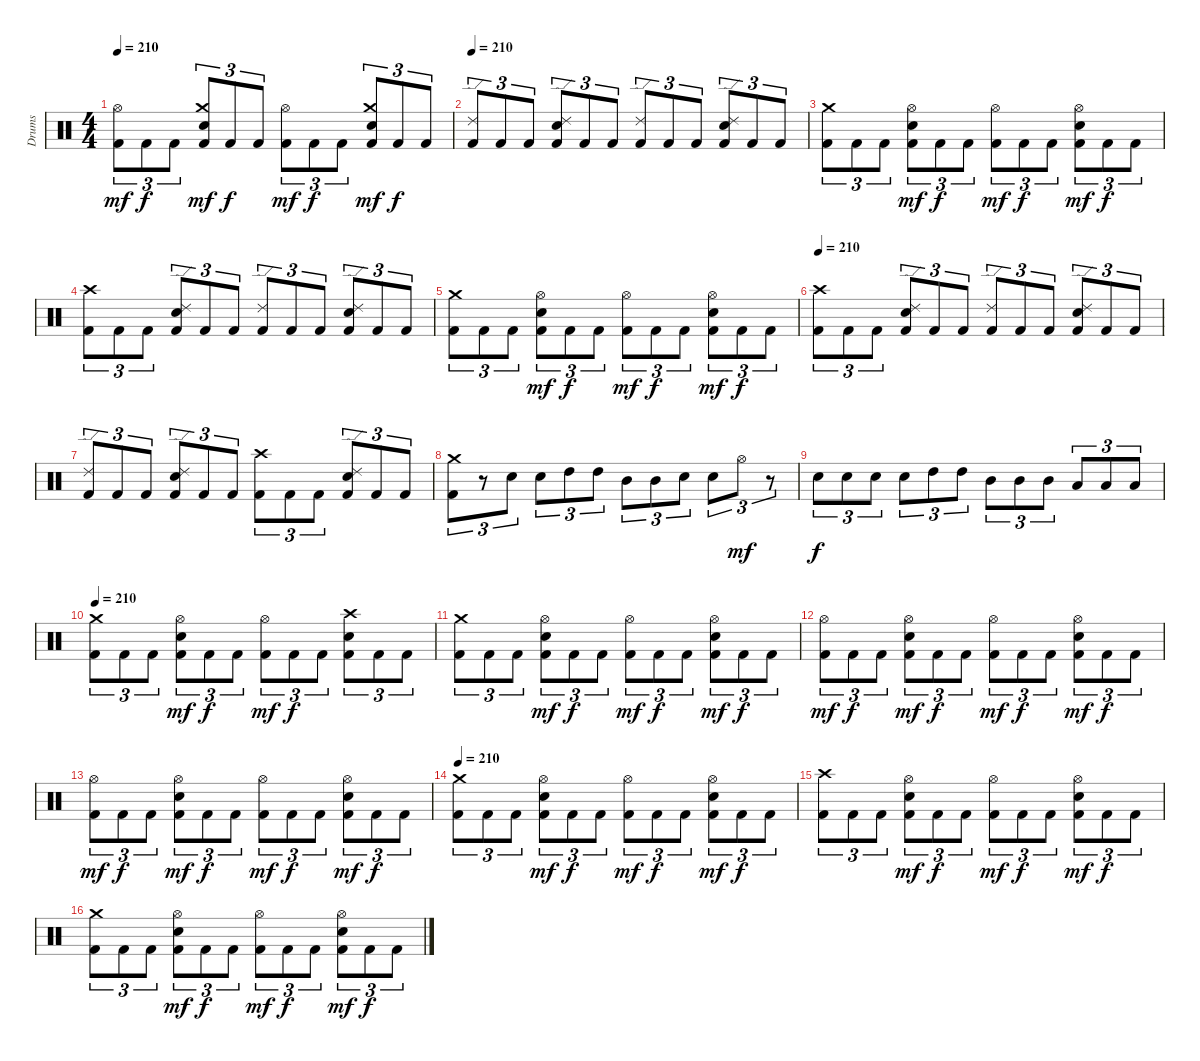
\track ("Drums" "Drums") {instrument percussion}
\staff {score}
\articulation defaults
\ts (4 4)
\tempo 210
\clef neutral
\ks c
("Hi-Hat (open)" "Kick (hit) 2").8{tu (3 2) dy mf} "Kick (hit) 2".8{tu (3 2) dy f} "Kick (hit) 2".8{tu (3 2)} ("Crash medium (hit)" "Electric Snare (hit)" "Kick (hit) 2").8{tu (3 2) dy mf} "Kick (hit) 2".8{tu (3 2) dy f} "Kick (hit) 2".8{tu (3 2)} ("Hi-Hat (open)" "Kick (hit) 2").8{tu (3 2) dy mf} "Kick (hit) 2".8{tu (3 2) dy f} "Kick (hit) 2".8{tu (3 2)} ("Crash medium (hit)" "Electric Snare (hit)" "Kick (hit) 2").8{tu (3 2) dy mf} "Kick (hit) 2".8{tu (3 2) dy f} "Kick (hit) 2".8{tu (3 2)} |
\tempo 210
("Ride (edge) 2" "Kick (hit) 2").8{tu (3 2)} "Kick (hit) 2".8{tu (3 2)} "Kick (hit) 2".8{tu (3 2)} ("Ride (edge) 2" "Electric Snare (hit)" "Kick (hit) 2").8{tu (3 2)} "Kick (hit) 2".8{tu (3 2)} "Kick (hit) 2".8{tu (3 2)} ("Ride (edge) 2" "Kick (hit) 2").8{tu (3 2)} "Kick (hit) 2".8{tu (3 2)} "Kick (hit) 2".8{tu (3 2)} ("Ride (edge) 2" "Electric Snare (hit)" "Kick (hit) 2").8{tu (3 2)} "Kick (hit) 2".8{tu (3 2)} "Kick (hit) 2".8{tu (3 2)} |
("Crash medium (hit)" "Kick (hit) 2").8{tu (3 2)} "Kick (hit) 2".8{tu (3 2)} "Kick (hit) 2".8{tu (3 2)} ("Hi-Hat (open)" "Electric Snare (hit)" "Kick (hit) 2").8{tu (3 2) dy mf} "Kick (hit) 2".8{tu (3 2) dy f} "Kick (hit) 2".8{tu (3 2)} ("Hi-Hat (open)" "Kick (hit) 2").8{tu (3 2) dy mf} "Kick (hit) 2".8{tu (3 2) dy f} "Kick (hit) 2".8{tu (3 2)} ("Hi-Hat (open)" "Electric Snare (hit)" "Kick (hit) 2").8{tu (3 2) dy mf} "Kick (hit) 2".8{tu (3 2) dy f} "Kick (hit) 2".8{tu (3 2)} |
("Crash high (hit)" "Kick (hit) 2").8{tu (3 2)} "Kick (hit) 2".8{tu (3 2)} "Kick (hit) 2".8{tu (3 2)} ("Ride (edge) 2" "Electric Snare (hit)" "Kick (hit) 2").8{tu (3 2)} "Kick (hit) 2".8{tu (3 2)} "Kick (hit) 2".8{tu (3 2)} ("Ride (edge) 2" "Kick (hit) 2").8{tu (3 2)} "Kick (hit) 2".8{tu (3 2)} "Kick (hit) 2".8{tu (3 2)} ("Ride (edge) 2" "Electric Snare (hit)" "Kick (hit) 2").8{tu (3 2)} "Kick (hit) 2".8{tu (3 2)} "Kick (hit) 2".8{tu (3 2)} |
("Crash medium (hit)" "Kick (hit) 2").8{tu (3 2)} "Kick (hit) 2".8{tu (3 2)} "Kick (hit) 2".8{tu (3 2)} ("Hi-Hat (open)" "Electric Snare (hit)" "Kick (hit) 2").8{tu (3 2) dy mf} "Kick (hit) 2".8{tu (3 2) dy f} "Kick (hit) 2".8{tu (3 2)} ("Hi-Hat (open)" "Kick (hit) 2").8{tu (3 2) dy mf} "Kick (hit) 2".8{tu (3 2) dy f} "Kick (hit) 2".8{tu (3 2)} ("Hi-Hat (open)" "Electric Snare (hit)" "Kick (hit) 2").8{tu (3 2) dy mf} "Kick (hit) 2".8{tu (3 2) dy f} "Kick (hit) 2".8{tu (3 2)} |
\tempo 210
("Crash high (hit)" "Kick (hit) 2").8{tu (3 2)} "Kick (hit) 2".8{tu (3 2)} "Kick (hit) 2".8{tu (3 2)} ("Ride (edge) 2" "Electric Snare (hit)" "Kick (hit) 2").8{tu (3 2)} "Kick (hit) 2".8{tu (3 2)} "Kick (hit) 2".8{tu (3 2)} ("Ride (edge) 2" "Kick (hit) 2").8{tu (3 2)} "Kick (hit) 2".8{tu (3 2)} "Kick (hit) 2".8{tu (3 2)} ("Ride (edge) 2" "Electric Snare (hit)" "Kick (hit) 2").8{tu (3 2)} "Kick (hit) 2".8{tu (3 2)} "Kick (hit) 2".8{tu (3 2)} |
("Ride (edge) 2" "Kick (hit) 2").8{tu (3 2)} "Kick (hit) 2".8{tu (3 2)} "Kick (hit) 2".8{tu (3 2)} ("Ride (edge) 2" "Electric Snare (hit)" "Kick (hit) 2").8{tu (3 2)} "Kick (hit) 2".8{tu (3 2)} "Kick (hit) 2".8{tu (3 2)} ("Crash high (hit)" "Kick (hit) 2").8{tu (3 2)} "Kick (hit) 2".8{tu (3 2)} "Kick (hit) 2".8{tu (3 2)} ("Ride (edge) 2" "Electric Snare (hit)" "Kick (hit) 2").8{tu (3 2)} "Kick (hit) 2".8{tu (3 2)} "Kick (hit) 2".8{tu (3 2)} |
("Crash medium (hit)" "Kick (hit) 2").8{tu (3 2)} r.8{tu (3 2)} "Electric Snare (hit)".8{tu (3 2)} "Electric Snare (hit)".8{tu (3 2)} "High Tom (hit)".8{tu (3 2)} "High Tom (hit)".8{tu (3 2)} "Mid Tom (hit)".8{tu (3 2)} "Mid Tom (hit)".8{tu (3 2)} "Electric Snare (hit)".8{tu (3 2)} "Electric Snare (hit)".8{tu (3 2)} "Hi-Hat (open)".8{tu (3 2) dy mf} r.8{tu (3 2)} |
"Electric Snare (hit)".8{tu (3 2) dy f} "Electric Snare (hit)".8{tu (3 2)} "Electric Snare (hit)".8{tu (3 2)} "Electric Snare (hit)".8{tu (3 2)} "High Tom (hit)".8{tu (3 2)} "High Tom (hit)".8{tu (3 2)} "Mid Tom (hit)".8{tu (3 2)} "Mid Tom (hit)".8{tu (3 2)} "Mid Tom (hit)".8{tu (3 2)} "Low Tom (hit)".8{tu (3 2)} "Low Tom (hit)".8{tu (3 2)} "Low Tom (hit)".8{tu (3 2)} |
\tempo 210
("Crash medium (hit)" "Kick (hit) 2").8{tu (3 2)} "Kick (hit) 2".8{tu (3 2)} "Kick (hit) 2".8{tu (3 2)} ("Hi-Hat (open)" "Electric Snare (hit)" "Kick (hit) 2").8{tu (3 2) dy mf} "Kick (hit) 2".8{tu (3 2) dy f} "Kick (hit) 2".8{tu (3 2)} ("Hi-Hat (open)" "Kick (hit) 2").8{tu (3 2) dy mf} "Kick (hit) 2".8{tu (3 2) dy f} "Kick (hit) 2".8{tu (3 2)} ("Crash high (hit)" "Electric Snare (hit)" "Kick (hit) 2").8{tu (3 2)} "Kick (hit) 2".8{tu (3 2)} "Kick (hit) 2".8{tu (3 2)} |
("Crash medium (hit)" "Kick (hit) 2").8{tu (3 2)} "Kick (hit) 2".8{tu (3 2)} "Kick (hit) 2".8{tu (3 2)} ("Hi-Hat (open)" "Electric Snare (hit)" "Kick (hit) 2").8{tu (3 2) dy mf} "Kick (hit) 2".8{tu (3 2) dy f} "Kick (hit) 2".8{tu (3 2)} ("Hi-Hat (open)" "Kick (hit) 2").8{tu (3 2) dy mf} "Kick (hit) 2".8{tu (3 2) dy f} "Kick (hit) 2".8{tu (3 2)} ("Hi-Hat (open)" "Electric Snare (hit)" "Kick (hit) 2").8{tu (3 2) dy mf} "Kick (hit) 2".8{tu (3 2) dy f} "Kick (hit) 2".8{tu (3 2)} |
("Hi-Hat (open)" "Kick (hit) 2").8{tu (3 2) dy mf} "Kick (hit) 2".8{tu (3 2) dy f} "Kick (hit) 2".8{tu (3 2)} ("Hi-Hat (open)" "Electric Snare (hit)" "Kick (hit) 2").8{tu (3 2) dy mf} "Kick (hit) 2".8{tu (3 2) dy f} "Kick (hit) 2".8{tu (3 2)} ("Hi-Hat (open)" "Kick (hit) 2").8{tu (3 2) dy mf} "Kick (hit) 2".8{tu (3 2) dy f} "Kick (hit) 2".8{tu (3 2)} ("Hi-Hat (open)" "Electric Snare (hit)" "Kick (hit) 2").8{tu (3 2) dy mf} "Kick (hit) 2".8{tu (3 2) dy f} "Kick (hit) 2".8{tu (3 2)} |
("Hi-Hat (open)" "Kick (hit) 2").8{tu (3 2) dy mf} "Kick (hit) 2".8{tu (3 2) dy f} "Kick (hit) 2".8{tu (3 2)} ("Hi-Hat (open)" "Electric Snare (hit)" "Kick (hit) 2").8{tu (3 2) dy mf} "Kick (hit) 2".8{tu (3 2) dy f} "Kick (hit) 2".8{tu (3 2)} ("Hi-Hat (open)" "Kick (hit) 2").8{tu (3 2) dy mf} "Kick (hit) 2".8{tu (3 2) dy f} "Kick (hit) 2".8{tu (3 2)} ("Hi-Hat (open)" "Electric Snare (hit)" "Kick (hit) 2").8{tu (3 2) dy mf} "Kick (hit) 2".8{tu (3 2) dy f} "Kick (hit) 2".8{tu (3 2)} |
\tempo 210
("Crash medium (hit)" "Kick (hit) 2").8{tu (3 2)} "Kick (hit) 2".8{tu (3 2)} "Kick (hit) 2".8{tu (3 2)} ("Hi-Hat (open)" "Electric Snare (hit)" "Kick (hit) 2").8{tu (3 2) dy mf} "Kick (hit) 2".8{tu (3 2) dy f} "Kick (hit) 2".8{tu (3 2)} ("Hi-Hat (open)" "Kick (hit) 2").8{tu (3 2) dy mf} "Kick (hit) 2".8{tu (3 2) dy f} "Kick (hit) 2".8{tu (3 2)} ("Hi-Hat (open)" "Electric Snare (hit)" "Kick (hit) 2").8{tu (3 2) dy mf} "Kick (hit) 2".8{tu (3 2) dy f} "Kick (hit) 2".8{tu (3 2)} |
("Crash high (hit)" "Kick (hit) 2").8{tu (3 2)} "Kick (hit) 2".8{tu (3 2)} "Kick (hit) 2".8{tu (3 2)} ("Hi-Hat (open)" "Electric Snare (hit)" "Kick (hit) 2").8{tu (3 2) dy mf} "Kick (hit) 2".8{tu (3 2) dy f} "Kick (hit) 2".8{tu (3 2)} ("Hi-Hat (open)" "Kick (hit) 2").8{tu (3 2) dy mf} "Kick (hit) 2".8{tu (3 2) dy f} "Kick (hit) 2".8{tu (3 2)} ("Hi-Hat (open)" "Electric Snare (hit)" "Kick (hit) 2").8{tu (3 2) dy mf} "Kick (hit) 2".8{tu (3 2) dy f} "Kick (hit) 2".8{tu (3 2)} |
("Crash medium (hit)" "Kick (hit) 2").8{tu (3 2)} "Kick (hit) 2".8{tu (3 2)} "Kick (hit) 2".8{tu (3 2)} ("Hi-Hat (open)" "Electric Snare (hit)" "Kick (hit) 2").8{tu (3 2) dy mf} "Kick (hit) 2".8{tu (3 2) dy f} "Kick (hit) 2".8{tu (3 2)} ("Hi-Hat (open)" "Kick (hit) 2").8{tu (3 2) dy mf} "Kick (hit) 2".8{tu (3 2) dy f} "Kick (hit) 2".8{tu (3 2)} ("Hi-Hat (open)" "Electric Snare (hit)" "Kick (hit) 2").8{tu (3 2) dy mf} "Kick (hit) 2".8{tu (3 2) dy f} "Kick (hit) 2".8{tu (3 2)}
